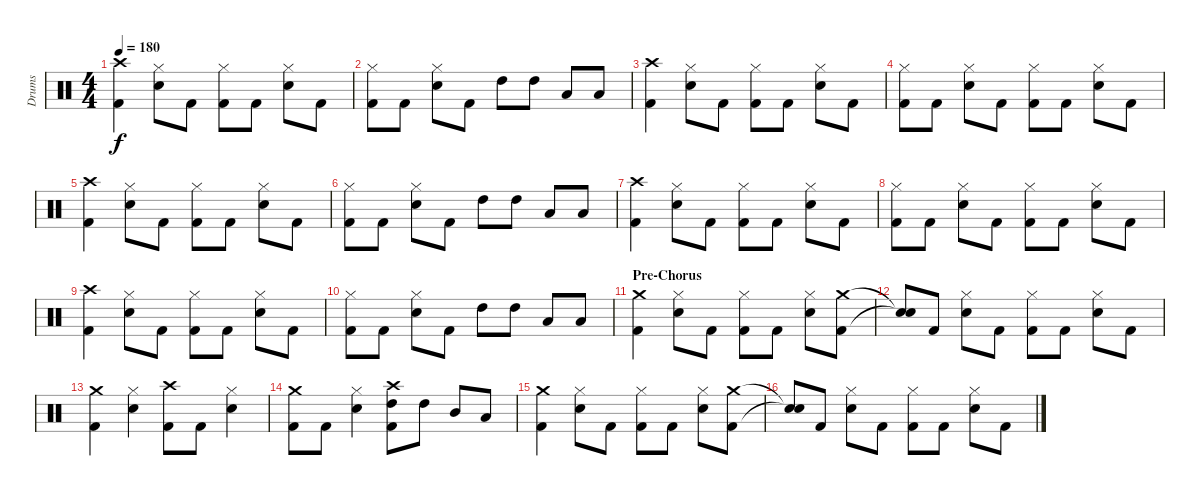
\track ("Drums" "Drums") {instrument percussion}
\staff {score}
\articulation defaults
\ts (4 4)
\tempo 180
\clef neutral
\ks c
("Crash high (hit)" "Kick (hit) 2").4{dy f} ("Hi-Hat (closed)" "Electric Snare (hit)").8 "Kick (hit) 2".8 ("Hi-Hat (closed)" "Kick (hit) 2").8 "Kick (hit) 2".8 ("Hi-Hat (closed)" "Electric Snare (hit)").8 "Kick (hit) 2".8 |
("Hi-Hat (closed)" "Kick (hit) 2").8 "Kick (hit) 2".8 ("Hi-Hat (closed)" "Electric Snare (hit)").8 "Kick (hit) 2".8 "High Tom (hit)".8 "High Tom (hit)".8 "Low Tom (hit)".8 "Low Tom (hit)".8 |
("Crash high (hit)" "Kick (hit) 2").4 ("Hi-Hat (closed)" "Electric Snare (hit)").8 "Kick (hit) 2".8 ("Hi-Hat (closed)" "Kick (hit) 2").8 "Kick (hit) 2".8 ("Hi-Hat (closed)" "Electric Snare (hit)").8 "Kick (hit) 2".8 |
("Hi-Hat (closed)" "Kick (hit) 2").8 "Kick (hit) 2".8 ("Hi-Hat (closed)" "Electric Snare (hit)").8 "Kick (hit) 2".8 ("Hi-Hat (closed)" "Kick (hit) 2").8 "Kick (hit) 2".8 ("Hi-Hat (closed)" "Electric Snare (hit)").8 "Kick (hit) 2".8 |
("Crash high (hit)" "Kick (hit) 2").4 ("Hi-Hat (closed)" "Electric Snare (hit)").8 "Kick (hit) 2".8 ("Hi-Hat (closed)" "Kick (hit) 2").8 "Kick (hit) 2".8 ("Hi-Hat (closed)" "Electric Snare (hit)").8 "Kick (hit) 2".8 |
("Hi-Hat (closed)" "Kick (hit) 2").8 "Kick (hit) 2".8 ("Hi-Hat (closed)" "Electric Snare (hit)").8 "Kick (hit) 2".8 "High Tom (hit)".8 "High Tom (hit)".8 "Low Tom (hit)".8 "Low Tom (hit)".8 |
("Crash high (hit)" "Kick (hit) 2").4 ("Hi-Hat (closed)" "Electric Snare (hit)").8 "Kick (hit) 2".8 ("Hi-Hat (closed)" "Kick (hit) 2").8 "Kick (hit) 2".8 ("Hi-Hat (closed)" "Electric Snare (hit)").8 "Kick (hit) 2".8 |
("Hi-Hat (closed)" "Kick (hit) 2").8 "Kick (hit) 2".8 ("Hi-Hat (closed)" "Electric Snare (hit)").8 "Kick (hit) 2".8 ("Hi-Hat (closed)" "Kick (hit) 2").8 "Kick (hit) 2".8 ("Hi-Hat (closed)" "Electric Snare (hit)").8 "Kick (hit) 2".8 |
("Crash high (hit)" "Kick (hit) 2").4 ("Hi-Hat (closed)" "Electric Snare (hit)").8 "Kick (hit) 2".8 ("Hi-Hat (closed)" "Kick (hit) 2").8 "Kick (hit) 2".8 ("Hi-Hat (closed)" "Electric Snare (hit)").8 "Kick (hit) 2".8 |
("Hi-Hat (closed)" "Kick (hit) 2").8 "Kick (hit) 2".8 ("Hi-Hat (closed)" "Electric Snare (hit)").8 "Kick (hit) 2".8 "High Tom (hit)".8 "High Tom (hit)".8 "Low Tom (hit)".8 "Low Tom (hit)".8 |
\section ("" "Pre-Chorus")
("Crash medium (hit)" "Kick (hit) 2").4 ("Hi-Hat (closed)" "Electric Snare (hit)").8 "Kick (hit) 2".8 ("Hi-Hat (closed)" "Kick (hit) 2").8 "Kick (hit) 2".8 ("Hi-Hat (closed)" "Electric Snare (hit)").8 ("Crash medium (hit)" "Kick (hit) 2").8 |
("Snare (hit)"{t} "Snare (hit)"{t}).8 "Kick (hit) 2".8 ("Hi-Hat (closed)" "Electric Snare (hit)").8 "Kick (hit) 2".8 ("Hi-Hat (closed)" "Kick (hit) 2").8 "Kick (hit) 2".8 ("Hi-Hat (closed)" "Electric Snare (hit)").8 "Kick (hit) 2".8 |
("Crash medium (hit)" "Kick (hit) 2").4 ("Hi-Hat (closed)" "Electric Snare (hit)").4 ("Crash high (hit)" "Kick (hit) 2").8 "Kick (hit) 2".8 ("Hi-Hat (closed)" "Electric Snare (hit)").4 |
("Crash medium (hit)" "Kick (hit) 2").8 "Kick (hit) 2".8 ("Hi-Hat (closed)" "Electric Snare (hit)").4 ("Crash high (hit)" "High Tom (hit)" "Kick (hit) 2").8 "High Tom (hit)".8 "Mid Tom (hit)".8 "Low Tom (hit)".8 |
("Crash medium (hit)" "Kick (hit) 2").4 ("Hi-Hat (closed)" "Electric Snare (hit)").8 "Kick (hit) 2".8 ("Hi-Hat (closed)" "Kick (hit) 2").8 "Kick (hit) 2".8 ("Hi-Hat (closed)" "Electric Snare (hit)").8 ("Crash medium (hit)" "Kick (hit) 2").8 |
("Snare (hit)"{t} "Snare (hit)"{t}).8 "Kick (hit) 2".8 ("Hi-Hat (closed)" "Electric Snare (hit)").8 "Kick (hit) 2".8 ("Hi-Hat (closed)" "Kick (hit) 2").8 "Kick (hit) 2".8 ("Hi-Hat (closed)" "Electric Snare (hit)").8 "Kick (hit) 2".8
